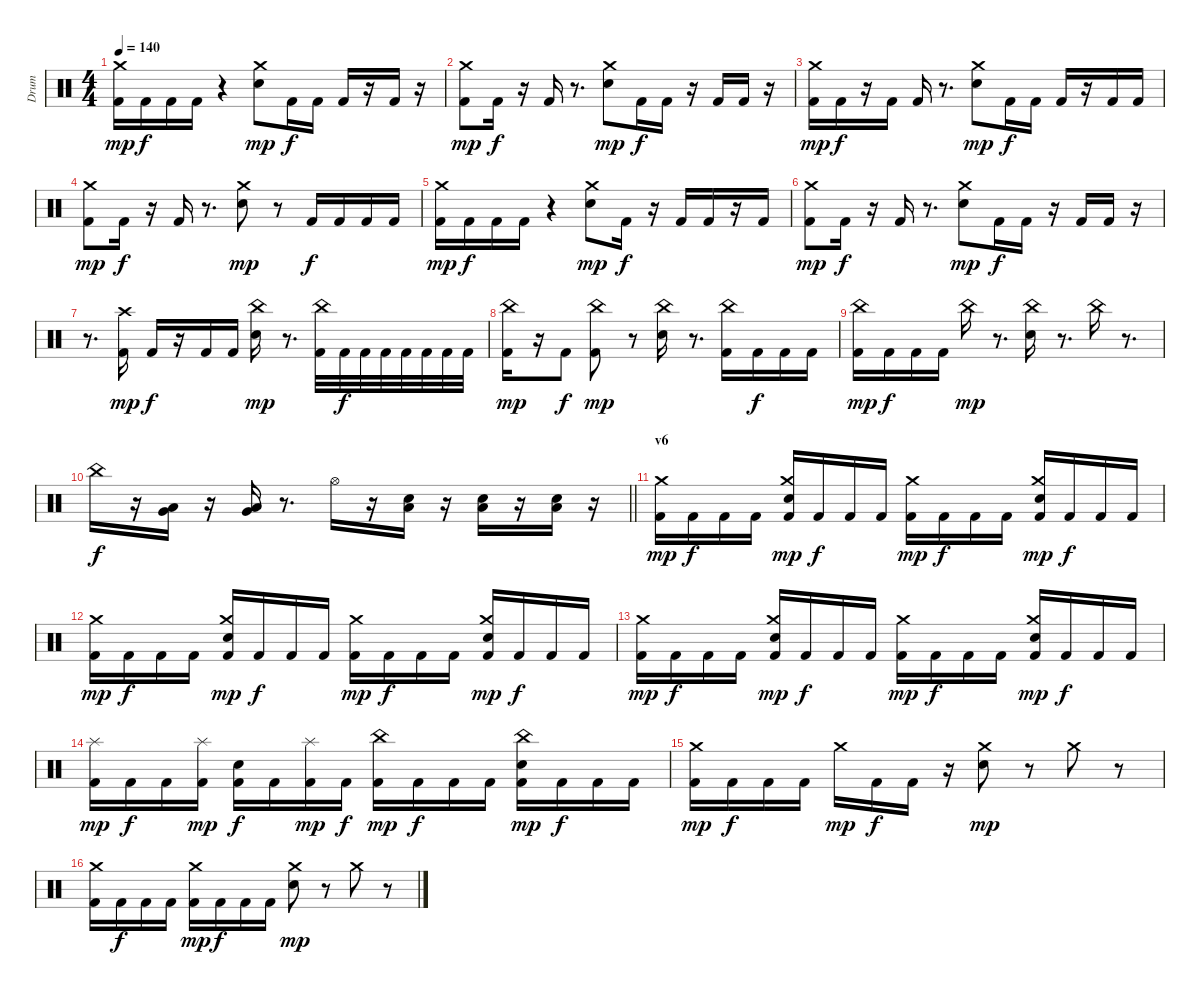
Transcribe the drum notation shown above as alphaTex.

\track ("Drum" "Drum") {instrument percussion}
\staff {score}
\articulation defaults
\ts (4 4)
\tempo 140
\clef neutral
\ks c
("Kick (hit) 2" "Crash medium (hit)").16{dy mp} "Kick (hit) 2".16{dy f} "Kick (hit) 2".16 "Kick (hit) 2".16 r.4 ("Electric Snare (hit)" "Crash medium (hit)").8{dy mp} "Kick (hit) 2".16{dy f} "Kick (hit) 2".16 "Kick (hit) 2".16 r.16 "Kick (hit) 2".16 r.16 |
("Kick (hit) 2" "Crash medium (hit)").8{dy mp} "Kick (hit) 2".16{dy f} r.16 "Kick (hit) 2".16 r.8{d} ("Electric Snare (hit)" "Crash medium (hit)").8{dy mp} "Kick (hit) 2".16{dy f} "Kick (hit) 2".16 r.16 "Kick (hit) 2".16 "Kick (hit) 2".16 r.16 |
("Crash medium (hit)" "Kick (hit) 2").16{dy mp} "Kick (hit) 2".16{dy f} r.16 "Kick (hit) 2".16 "Kick (hit) 2".16 r.8{d} ("Crash medium (hit)" "Electric Snare (hit)").8{dy mp} "Kick (hit) 2".16{dy f} "Kick (hit) 2".16 "Kick (hit) 2".16 r.16 "Kick (hit) 2".16 "Kick (hit) 2".16 |
("Crash medium (hit)" "Kick (hit) 2").8{dy mp} "Kick (hit) 2".16{dy f} r.16 "Kick (hit) 2".16 r.8{d} ("Crash medium (hit)" "Electric Snare (hit)").8{dy mp} r.8 "Kick (hit) 2".16{dy f} "Kick (hit) 2".16 "Kick (hit) 2".16 "Kick (hit) 2".16 |
("Crash medium (hit)" "Kick (hit) 2").16{dy mp} "Kick (hit) 2".16{dy f} "Kick (hit) 2".16 "Kick (hit) 2".16 r.4 ("Electric Snare (hit)" "Crash medium (hit)").8{dy mp} "Kick (hit) 2".16{dy f} r.16 "Kick (hit) 2".16 "Kick (hit) 2".16 r.16 "Kick (hit) 2".16 |
("Crash medium (hit)" "Kick (hit) 2").8{dy mp} "Kick (hit) 2".16{dy f} r.16 "Kick (hit) 2".16 r.8{d} ("Crash medium (hit)" "Electric Snare (hit)").8{dy mp} "Kick (hit) 2".16{dy f} "Kick (hit) 2".16 r.16 "Kick (hit) 2".16 "Kick (hit) 2".16 r.16 |
r.8{d} ("Crash high (hit)" "Kick (hit) 2").16{dy mp} "Kick (hit) 2".16{dy f} r.16 "Kick (hit) 2".16 "Kick (hit) 2".16 ("China (hit)" "Electric Snare (hit)").16{dy mp} r.8{d} ("China (hit)" "Kick (hit) 2").32 "Kick (hit) 2".32{dy f} "Kick (hit) 2".32 "Kick (hit) 2".32 "Kick (hit) 2".32 "Kick (hit) 2".32 "Kick (hit) 2".32 "Kick (hit) 2".32 |
("China (hit)" "Kick (hit) 2").16{dy mp} r.16 "Kick (hit) 2".8{dy f} ("China (hit)" "Kick (hit) 2").8{dy mp} r.8 ("China (hit)" "Electric Snare (hit)").16 r.8{d} ("China (hit)" "Kick (hit) 2").16 "Kick (hit) 2".16{dy f} "Kick (hit) 2".16 "Kick (hit) 2".16 |
("China (hit)" "Kick (hit) 2").16{dy mp} "Kick (hit) 2".16{dy f} "Kick (hit) 2".16 "Kick (hit) 2".16 "China (hit)".16{dy mp} r.8{d} ("China (hit)" "Electric Snare (hit)").16 r.8{d} "China (hit)".16 r.8{d} |
\barLineRight lightlight "China (hit)".16{dy f}
r.16 ("Low Tom (hit)" "Very Low Tom (hit)").16 r.16 ("Low Tom (hit)" "Very Low Tom (hit)").16 r.8{d} "Hi-Hat (open)".16 r.16 ("Electric Snare (hit)" "Low Tom (hit)").16 r.16 ("Electric Snare (hit)" "Low Tom (hit)").16 r.16 ("Electric Snare (hit)" "Low Tom (hit)").16 r.16 |
\section ("" "v6")
("Kick (hit) 2" "Crash medium (hit)").16{dy mp} "Kick (hit) 2".16{dy f} "Kick (hit) 2".16 "Kick (hit) 2".16 ("Crash medium (hit)" "Kick (hit) 2" "Electric Snare (hit)").16{dy mp} "Kick (hit) 2".16{dy f} "Kick (hit) 2".16 "Kick (hit) 2".16 ("Kick (hit) 2" "Crash medium (hit)").16{dy mp} "Kick (hit) 2".16{dy f} "Kick (hit) 2".16 "Kick (hit) 2".16 ("Crash medium (hit)" "Electric Snare (hit)" "Kick (hit) 2").16{dy mp} "Kick (hit) 2".16{dy f} "Kick (hit) 2".16 "Kick (hit) 2".16 |
("Kick (hit) 2" "Crash medium (hit)").16{dy mp} "Kick (hit) 2".16{dy f} "Kick (hit) 2".16 "Kick (hit) 2".16 ("Crash medium (hit)" "Kick (hit) 2" "Electric Snare (hit)").16{dy mp} "Kick (hit) 2".16{dy f} "Kick (hit) 2".16 "Kick (hit) 2".16 ("Kick (hit) 2" "Crash medium (hit)").16{dy mp} "Kick (hit) 2".16{dy f} "Kick (hit) 2".16 "Kick (hit) 2".16 ("Crash medium (hit)" "Electric Snare (hit)" "Kick (hit) 2").16{dy mp} "Kick (hit) 2".16{dy f} "Kick (hit) 2".16 "Kick (hit) 2".16 |
("Kick (hit) 2" "Crash medium (hit)").16{dy mp} "Kick (hit) 2".16{dy f} "Kick (hit) 2".16 "Kick (hit) 2".16 ("Crash medium (hit)" "Kick (hit) 2" "Electric Snare (hit)").16{dy mp} "Kick (hit) 2".16{dy f} "Kick (hit) 2".16 "Kick (hit) 2".16 ("Kick (hit) 2" "Crash medium (hit)").16{dy mp} "Kick (hit) 2".16{dy f} "Kick (hit) 2".16 "Kick (hit) 2".16 ("Crash medium (hit)" "Electric Snare (hit)" "Kick (hit) 2").16{dy mp} "Kick (hit) 2".16{dy f} "Kick (hit) 2".16 "Kick (hit) 2".16 |
("Splash (hit)" "Kick (hit) 2").16{dy mp} "Kick (hit) 2".16{dy f} "Kick (hit) 2".16 ("Splash (hit)" "Kick (hit) 2").16{dy mp} ("Kick (hit) 2" "Electric Snare (hit)").16{dy f} "Kick (hit) 2".16 ("Splash (hit)" "Kick (hit) 2").16{dy mp} "Kick (hit) 2".16{dy f} ("Kick (hit) 2" "China (hit)").16{dy mp} "Kick (hit) 2".16{dy f} "Kick (hit) 2".16 "Kick (hit) 2".16 ("China (hit)" "Electric Snare (hit)" "Kick (hit) 2").16{dy mp} "Kick (hit) 2".16{dy f} "Kick (hit) 2".16 "Kick (hit) 2".16 |
("Kick (hit) 2" "Crash medium (hit)").16{dy mp} "Kick (hit) 2".16{dy f} "Kick (hit) 2".16 "Kick (hit) 2".16 "Crash medium (hit)".16{dy mp} "Kick (hit) 2".16{dy f} "Kick (hit) 2".16 r.16 ("Electric Snare (hit)" "Crash medium (hit)").8{dy mp} r.8 "Crash medium (hit)".8 r.8 |
("Kick (hit) 2" "Crash medium (hit)").16 "Kick (hit) 2".16{dy f} "Kick (hit) 2".16 "Kick (hit) 2".16 ("Crash medium (hit)" "Kick (hit) 2").16{dy mp} "Kick (hit) 2".16{dy f} "Kick (hit) 2".16 "Kick (hit) 2".16 ("Crash medium (hit)" "Electric Snare (hit)").8{dy mp} r.8 "Crash medium (hit)".8 r.8
